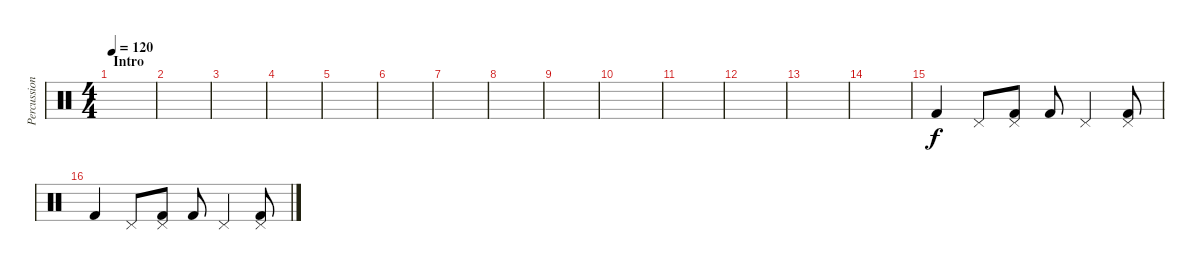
\track ("Percussions" "Percussion") {instrument percussion}
\staff {score}
\articulation defaults
\ts (4 4)
\section ("" "Intro")
\tempo 120
\clef neutral
\ks c
|
|
|
|
|
|
|
|
|
|
|
|
|
|
"Kick (hit) 2".4 "Pedal Hi-Hat (hit)".8 ("Pedal Hi-Hat (hit)" "Kick (hit) 2").8 "Kick (hit) 2".8 "Pedal Hi-Hat (hit)".4 ("Pedal Hi-Hat (hit)" "Kick (hit) 2").8 |
"Kick (hit) 2".4 "Pedal Hi-Hat (hit)".8 ("Pedal Hi-Hat (hit)" "Kick (hit) 2").8 "Kick (hit) 2".8 "Pedal Hi-Hat (hit)".4 ("Pedal Hi-Hat (hit)" "Kick (hit) 2").8
